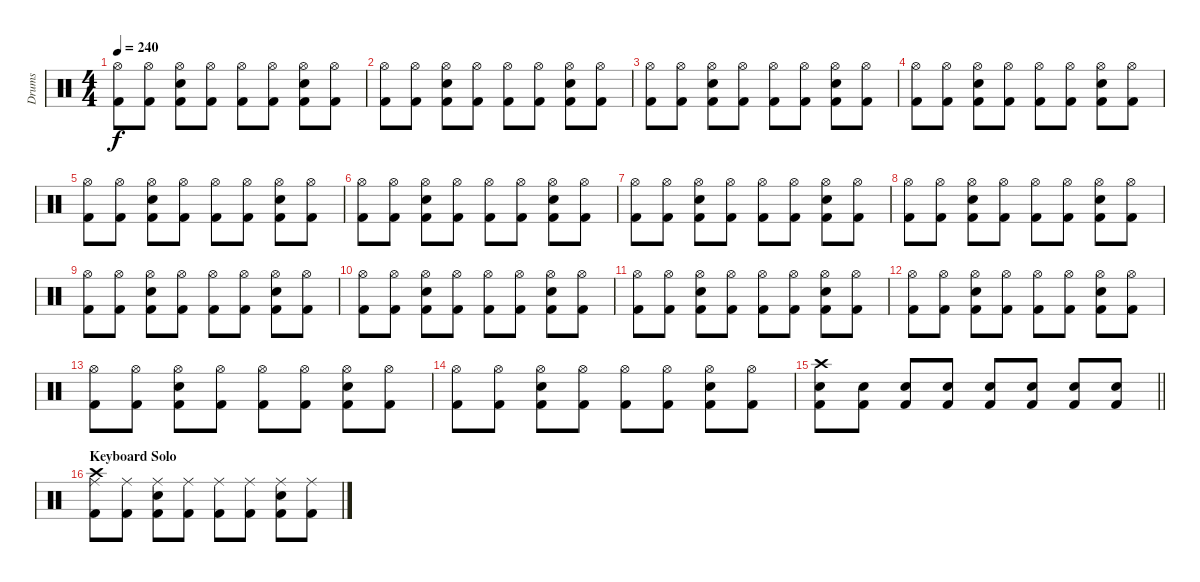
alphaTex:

\track ("Drums" "Drums") {instrument percussion}
\staff {score}
\articulation defaults
\ts (4 4)
\tempo 240
\clef neutral
\ks c
("Kick (hit) 2" "Hi-Hat (open)").8{dy f} ("Kick (hit) 2" "Hi-Hat (open)").8 ("Kick (hit) 2" "Snare (hit) 2" "Hi-Hat (open)").8 ("Kick (hit) 2" "Hi-Hat (open)").8 ("Kick (hit) 2" "Hi-Hat (open)").8 ("Kick (hit) 2" "Hi-Hat (open)").8 ("Kick (hit) 2" "Snare (hit) 2" "Hi-Hat (open)").8 ("Kick (hit) 2" "Hi-Hat (open)").8 |
("Kick (hit) 2" "Hi-Hat (open)").8 ("Kick (hit) 2" "Hi-Hat (open)").8 ("Kick (hit) 2" "Snare (hit) 2" "Hi-Hat (open)").8 ("Kick (hit) 2" "Hi-Hat (open)").8 ("Kick (hit) 2" "Hi-Hat (open)").8 ("Kick (hit) 2" "Hi-Hat (open)").8 ("Kick (hit) 2" "Snare (hit) 2" "Hi-Hat (open)").8 ("Kick (hit) 2" "Hi-Hat (open)").8 |
("Kick (hit) 2" "Hi-Hat (open)").8 ("Kick (hit) 2" "Hi-Hat (open)").8 ("Kick (hit) 2" "Snare (hit) 2" "Hi-Hat (open)").8 ("Kick (hit) 2" "Hi-Hat (open)").8 ("Kick (hit) 2" "Hi-Hat (open)").8 ("Kick (hit) 2" "Hi-Hat (open)").8 ("Kick (hit) 2" "Snare (hit) 2" "Hi-Hat (open)").8 ("Kick (hit) 2" "Hi-Hat (open)").8 |
("Kick (hit) 2" "Hi-Hat (open)").8 ("Kick (hit) 2" "Hi-Hat (open)").8 ("Kick (hit) 2" "Snare (hit) 2" "Hi-Hat (open)").8 ("Kick (hit) 2" "Hi-Hat (open)").8 ("Kick (hit) 2" "Hi-Hat (open)").8 ("Kick (hit) 2" "Hi-Hat (open)").8 ("Kick (hit) 2" "Snare (hit) 2" "Hi-Hat (open)").8 ("Kick (hit) 2" "Hi-Hat (open)").8 |
("Kick (hit) 2" "Hi-Hat (open)").8 ("Kick (hit) 2" "Hi-Hat (open)").8 ("Kick (hit) 2" "Snare (hit) 2" "Hi-Hat (open)").8 ("Kick (hit) 2" "Hi-Hat (open)").8 ("Kick (hit) 2" "Hi-Hat (open)").8 ("Kick (hit) 2" "Hi-Hat (open)").8 ("Kick (hit) 2" "Snare (hit) 2" "Hi-Hat (open)").8 ("Kick (hit) 2" "Hi-Hat (open)").8 |
("Kick (hit) 2" "Hi-Hat (open)").8 ("Kick (hit) 2" "Hi-Hat (open)").8 ("Kick (hit) 2" "Snare (hit) 2" "Hi-Hat (open)").8 ("Kick (hit) 2" "Hi-Hat (open)").8 ("Kick (hit) 2" "Hi-Hat (open)").8 ("Kick (hit) 2" "Hi-Hat (open)").8 ("Kick (hit) 2" "Snare (hit) 2" "Hi-Hat (open)").8 ("Kick (hit) 2" "Hi-Hat (open)").8 |
("Kick (hit) 2" "Hi-Hat (open)").8 ("Kick (hit) 2" "Hi-Hat (open)").8 ("Kick (hit) 2" "Snare (hit) 2" "Hi-Hat (open)").8 ("Kick (hit) 2" "Hi-Hat (open)").8 ("Kick (hit) 2" "Hi-Hat (open)").8 ("Kick (hit) 2" "Hi-Hat (open)").8 ("Kick (hit) 2" "Snare (hit) 2" "Hi-Hat (open)").8 ("Kick (hit) 2" "Hi-Hat (open)").8 |
("Kick (hit) 2" "Hi-Hat (open)").8 ("Kick (hit) 2" "Hi-Hat (open)").8 ("Kick (hit) 2" "Snare (hit) 2" "Hi-Hat (open)").8 ("Kick (hit) 2" "Hi-Hat (open)").8 ("Kick (hit) 2" "Hi-Hat (open)").8 ("Kick (hit) 2" "Hi-Hat (open)").8 ("Kick (hit) 2" "Snare (hit) 2" "Hi-Hat (open)").8 ("Kick (hit) 2" "Hi-Hat (open)").8 |
("Kick (hit) 2" "Hi-Hat (open)").8 ("Kick (hit) 2" "Hi-Hat (open)").8 ("Kick (hit) 2" "Snare (hit) 2" "Hi-Hat (open)").8 ("Kick (hit) 2" "Hi-Hat (open)").8 ("Kick (hit) 2" "Hi-Hat (open)").8 ("Kick (hit) 2" "Hi-Hat (open)").8 ("Kick (hit) 2" "Snare (hit) 2" "Hi-Hat (open)").8 ("Kick (hit) 2" "Hi-Hat (open)").8 |
("Kick (hit) 2" "Hi-Hat (open)").8 ("Kick (hit) 2" "Hi-Hat (open)").8 ("Kick (hit) 2" "Snare (hit) 2" "Hi-Hat (open)").8 ("Kick (hit) 2" "Hi-Hat (open)").8 ("Kick (hit) 2" "Hi-Hat (open)").8 ("Kick (hit) 2" "Hi-Hat (open)").8 ("Kick (hit) 2" "Snare (hit) 2" "Hi-Hat (open)").8 ("Kick (hit) 2" "Hi-Hat (open)").8 |
("Kick (hit) 2" "Hi-Hat (open)").8 ("Kick (hit) 2" "Hi-Hat (open)").8 ("Kick (hit) 2" "Snare (hit) 2" "Hi-Hat (open)").8 ("Kick (hit) 2" "Hi-Hat (open)").8 ("Kick (hit) 2" "Hi-Hat (open)").8 ("Kick (hit) 2" "Hi-Hat (open)").8 ("Kick (hit) 2" "Snare (hit) 2" "Hi-Hat (open)").8 ("Kick (hit) 2" "Hi-Hat (open)").8 |
("Kick (hit) 2" "Hi-Hat (open)").8 ("Kick (hit) 2" "Hi-Hat (open)").8 ("Kick (hit) 2" "Snare (hit) 2" "Hi-Hat (open)").8 ("Kick (hit) 2" "Hi-Hat (open)").8 ("Kick (hit) 2" "Hi-Hat (open)").8 ("Kick (hit) 2" "Hi-Hat (open)").8 ("Kick (hit) 2" "Snare (hit) 2" "Hi-Hat (open)").8 ("Kick (hit) 2" "Hi-Hat (open)").8 |
("Kick (hit) 2" "Hi-Hat (open)").8 ("Kick (hit) 2" "Hi-Hat (open)").8 ("Kick (hit) 2" "Snare (hit) 2" "Hi-Hat (open)").8 ("Kick (hit) 2" "Hi-Hat (open)").8 ("Kick (hit) 2" "Hi-Hat (open)").8 ("Kick (hit) 2" "Hi-Hat (open)").8 ("Kick (hit) 2" "Snare (hit) 2" "Hi-Hat (open)").8 ("Kick (hit) 2" "Hi-Hat (open)").8 |
("Kick (hit) 2" "Hi-Hat (open)").8 ("Kick (hit) 2" "Hi-Hat (open)").8 ("Kick (hit) 2" "Snare (hit) 2" "Hi-Hat (open)").8 ("Kick (hit) 2" "Hi-Hat (open)").8 ("Kick (hit) 2" "Hi-Hat (open)").8 ("Kick (hit) 2" "Hi-Hat (open)").8 ("Kick (hit) 2" "Snare (hit) 2" "Hi-Hat (open)").8 ("Kick (hit) 2" "Hi-Hat (open)").8 |
\barLineRight lightlight
("Kick (hit) 2" "Snare (hit) 2" "Crash high (hit)").8 ("Kick (hit) 2" "Snare (hit) 2").8 ("Kick (hit) 2" "Snare (hit) 2").8 ("Kick (hit) 2" "Snare (hit) 2").8 ("Kick (hit) 2" "Snare (hit) 2").8 ("Kick (hit) 2" "Snare (hit) 2").8 ("Kick (hit) 2" "Snare (hit) 2").8 ("Kick (hit) 2" "Snare (hit) 2").8 |
\section ("" "Keyboard Solo")
("Crash high (hit)" "Ride (middle)" "Kick (hit) 2").8 ("Ride (middle)" "Kick (hit) 2").8 ("Ride (middle)" "Snare (hit) 2" "Kick (hit) 2").8 ("Ride (middle)" "Kick (hit) 2").8 ("Ride (middle)" "Kick (hit) 2").8 ("Ride (middle)" "Kick (hit) 2").8 ("Ride (middle)" "Snare (hit) 2" "Kick (hit) 2").8 ("Ride (middle)" "Kick (hit) 2").8
